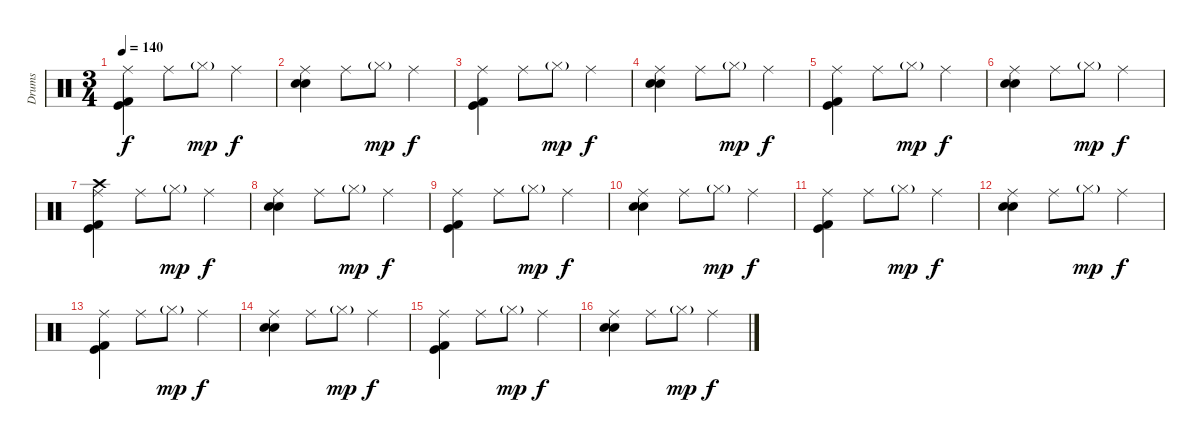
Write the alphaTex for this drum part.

\track ("Drums" "Drums") {instrument percussion}
\staff {score}
\articulation defaults
\ts (3 4)
\tempo 140
\clef neutral
\ks c
("Ride (middle)" "Kick (hit) 2" "Kick (hit)").4{dy f} "Ride (middle)".8 "Hi-Hat (closed)"{g}.8{dy mp} "Ride (middle)".4{dy f} |
("Ride (middle)" "Electric Snare (hit)" "Electric Snare (hit)").4 "Ride (middle)".8 "Hi-Hat (closed)"{g}.8{dy mp} "Ride (middle)".4{dy f} |
("Ride (middle)" "Kick (hit) 2" "Kick (hit)").4 "Ride (middle)".8 "Hi-Hat (closed)"{g}.8{dy mp} "Ride (middle)".4{dy f} |
("Ride (middle)" "Electric Snare (hit)" "Electric Snare (hit)").4 "Ride (middle)".8 "Hi-Hat (closed)"{g}.8{dy mp} "Ride (middle)".4{dy f} |
("Ride (middle)" "Kick (hit) 2" "Kick (hit)").4 "Ride (middle)".8 "Hi-Hat (closed)"{g}.8{dy mp} "Ride (middle)".4{dy f} |
("Ride (middle)" "Electric Snare (hit)" "Electric Snare (hit)").4 "Ride (middle)".8 "Hi-Hat (closed)"{g}.8{dy mp} "Ride (middle)".4{dy f} |
("Crash high (hit)" "Ride (middle)" "Kick (hit) 2" "Kick (hit)").4 "Ride (middle)".8 "Hi-Hat (closed)"{g}.8{dy mp} "Ride (middle)".4{dy f} |
("Ride (middle)" "Electric Snare (hit)" "Electric Snare (hit)").4 "Ride (middle)".8 "Hi-Hat (closed)"{g}.8{dy mp} "Ride (middle)".4{dy f} |
("Ride (middle)" "Kick (hit) 2" "Kick (hit)").4 "Ride (middle)".8 "Hi-Hat (closed)"{g}.8{dy mp} "Ride (middle)".4{dy f} |
("Ride (middle)" "Electric Snare (hit)" "Electric Snare (hit)").4 "Ride (middle)".8 "Hi-Hat (closed)"{g}.8{dy mp} "Ride (middle)".4{dy f} |
("Ride (middle)" "Kick (hit) 2" "Kick (hit)").4 "Ride (middle)".8 "Hi-Hat (closed)"{g}.8{dy mp} "Ride (middle)".4{dy f} |
("Ride (middle)" "Electric Snare (hit)" "Electric Snare (hit)").4 "Ride (middle)".8 "Hi-Hat (closed)"{g}.8{dy mp} "Ride (middle)".4{dy f} |
("Ride (middle)" "Kick (hit) 2" "Kick (hit)").4 "Ride (middle)".8 "Hi-Hat (closed)"{g}.8{dy mp} "Ride (middle)".4{dy f} |
("Ride (middle)" "Electric Snare (hit)" "Electric Snare (hit)").4 "Ride (middle)".8 "Hi-Hat (closed)"{g}.8{dy mp} "Ride (middle)".4{dy f} |
("Ride (middle)" "Kick (hit) 2" "Kick (hit)").4 "Ride (middle)".8 "Hi-Hat (closed)"{g}.8{dy mp} "Ride (middle)".4{dy f} |
("Ride (middle)" "Electric Snare (hit)" "Electric Snare (hit)").4 "Ride (middle)".8 "Hi-Hat (closed)"{g}.8{dy mp} "Ride (middle)".4{dy f}
